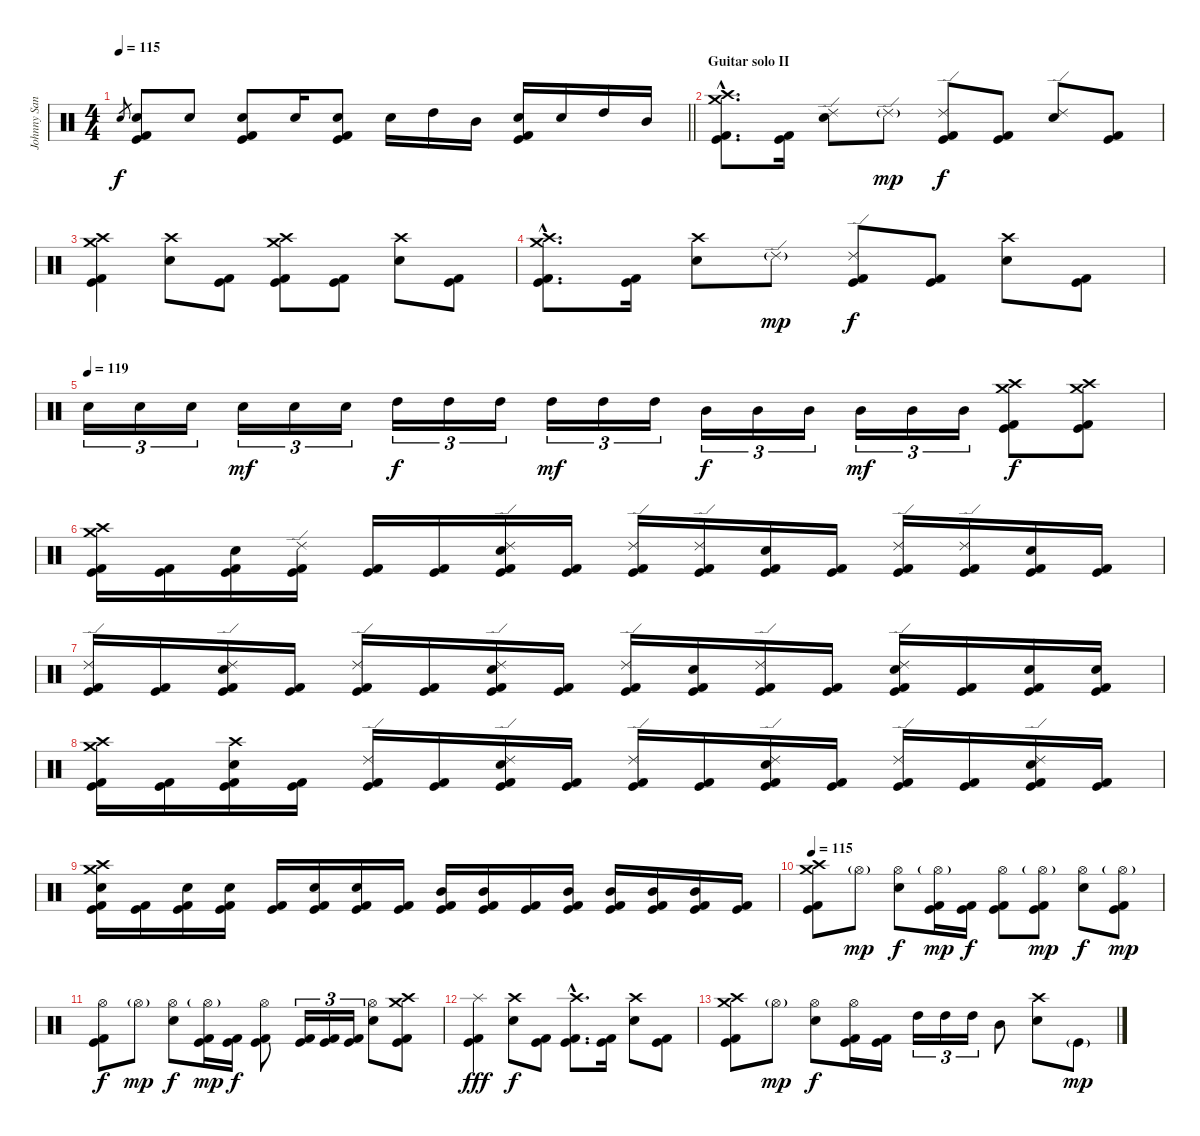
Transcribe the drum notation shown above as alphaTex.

\track ("Johnny Sandin" "Johnny San") {instrument percussion}
\staff {score}
\articulation defaults
\ts (4 4)
\tempo 115
\clef neutral
\barLineRight lightlight
\ks c "Snare (hit) 2".8{gr dy f}
("Snare (hit) 2" "Kick (hit) 2" "Kick (hit)").8 "Snare (hit) 2".8 ("Snare (hit) 2" "Kick (hit) 2" "Kick (hit)").8 "Snare (hit) 2".16 ("Snare (hit) 2" "Kick (hit) 2" "Kick (hit)").8 "Snare (hit) 2".16 "High Tom (hit)".16 "Mid Tom (hit)".16 ("Snare (hit) 2" "Kick (hit) 2" "Kick (hit)").16 "Snare (hit) 2".16 "High Tom (hit)".16 "Mid Tom (hit)".16 |
\section ("" "Guitar solo II")
("Crash medium (hit)"{hac} "Crash high (hit)"{hac} "Kick (hit) 2"{hac} "Kick (hit)"{hac}).8{d} ("Kick (hit) 2" "Kick (hit)").16 ("Ride (edge) 2" "Snare (hit) 2").8 "Ride (edge) 2"{g}.8{dy mp} ("Ride (edge) 2" "Kick (hit) 2" "Kick (hit)").8{dy f} ("Kick (hit) 2" "Kick (hit)").8 ("Ride (edge) 2" "Snare (hit) 2").8 ("Kick (hit) 2" "Kick (hit)").8 |
("Crash medium (hit)" "Crash high (hit)" "Kick (hit) 2" "Kick (hit)").4 ("Crash high (hit)" "Snare (hit) 2").8 ("Kick (hit) 2" "Kick (hit)").8 ("Crash medium (hit)" "Crash high (hit)" "Kick (hit) 2" "Kick (hit)").8 ("Kick (hit) 2" "Kick (hit)").8 ("Crash high (hit)" "Snare (hit) 2").8 ("Kick (hit) 2" "Kick (hit)").8 |
("Crash medium (hit)"{hac} "Crash high (hit)"{hac} "Kick (hit) 2"{hac} "Kick (hit)"{hac}).8{d} ("Kick (hit) 2" "Kick (hit)").16 ("Crash high (hit)" "Snare (hit) 2").8 "Ride (edge) 2"{g}.8{dy mp} ("Ride (edge) 2" "Kick (hit) 2" "Kick (hit)").8{dy f} ("Kick (hit) 2" "Kick (hit)").8 ("Crash high (hit)" "Snare (hit) 2").8 ("Kick (hit) 2" "Kick (hit)").8 |
\tempo (119)
"Snare (hit) 2".16{tu (3 2)} "Snare (hit) 2".16{tu (3 2)} "Snare (hit) 2".16{tu (3 2)} "Snare (hit) 2".16{tu (3 2) dy mf} "Snare (hit) 2".16{tu (3 2)} "Snare (hit) 2".16{tu (3 2)} "High Tom (hit)".16{tu (3 2) dy f} "High Tom (hit)".16{tu (3 2)} "High Tom (hit)".16{tu (3 2)} "High Tom (hit)".16{tu (3 2) dy mf} "High Tom (hit)".16{tu (3 2)} "High Tom (hit)".16{tu (3 2)} "Mid Tom (hit)".16{tu (3 2) dy f} "Mid Tom (hit)".16{tu (3 2)} "Mid Tom (hit)".16{tu (3 2)} "Mid Tom (hit)".16{tu (3 2) dy mf} "Mid Tom (hit)".16{tu (3 2)} "Mid Tom (hit)".16{tu (3 2)} ("Crash medium (hit)" "Crash high (hit)" "Kick (hit) 2" "Kick (hit)").8{dy f} ("Crash medium (hit)" "Crash high (hit)" "Kick (hit) 2" "Kick (hit)").8 |
("Crash medium (hit)" "Crash high (hit)" "Kick (hit) 2" "Kick (hit)").16 ("Kick (hit) 2" "Kick (hit)").16 ("Snare (hit) 2" "Kick (hit) 2" "Kick (hit)").16 ("Ride (edge) 2" "Kick (hit) 2" "Kick (hit)").16 ("Kick (hit) 2" "Kick (hit)").16 ("Kick (hit) 2" "Kick (hit)").16 ("Ride (edge) 2" "Snare (hit) 2" "Kick (hit) 2" "Kick (hit)").16 ("Kick (hit) 2" "Kick (hit)").16 ("Ride (edge) 2" "Kick (hit) 2" "Kick (hit)").16 ("Ride (edge) 2" "Kick (hit) 2" "Kick (hit)").16 ("Snare (hit) 2" "Kick (hit) 2" "Kick (hit)").16 ("Kick (hit) 2" "Kick (hit)").16 ("Ride (edge) 2" "Kick (hit) 2" "Kick (hit)").16 ("Ride (edge) 2" "Kick (hit) 2" "Kick (hit)").16 ("Snare (hit) 2" "Kick (hit) 2" "Kick (hit)").16 ("Kick (hit) 2" "Kick (hit)").16 |
("Ride (edge) 2" "Kick (hit) 2" "Kick (hit)").16 ("Kick (hit) 2" "Kick (hit)").16 ("Ride (edge) 2" "Snare (hit) 2" "Kick (hit) 2" "Kick (hit)").16 ("Kick (hit) 2" "Kick (hit)").16 ("Ride (edge) 2" "Kick (hit) 2" "Kick (hit)").16 ("Kick (hit) 2" "Kick (hit)").16 ("Ride (edge) 2" "Snare (hit) 2" "Kick (hit) 2" "Kick (hit)").16 ("Kick (hit) 2" "Kick (hit)").16 ("Ride (edge) 2" "Kick (hit) 2" "Kick (hit)").16 ("Snare (hit) 2" "Kick (hit) 2" "Kick (hit)").16 ("Ride (edge) 2" "Kick (hit) 2" "Kick (hit)").16 ("Kick (hit) 2" "Kick (hit)").16 ("Ride (edge) 2" "Snare (hit) 2" "Kick (hit) 2" "Kick (hit)").16 ("Kick (hit) 2" "Kick (hit)").16 ("Snare (hit) 2" "Kick (hit) 2" "Kick (hit)").16 ("Snare (hit) 2" "Kick (hit) 2" "Kick (hit)").16 |
("Crash medium (hit)" "Crash high (hit)" "Kick (hit) 2" "Kick (hit)").16 ("Kick (hit) 2" "Kick (hit)").16 ("Crash high (hit)" "Snare (hit) 2" "Kick (hit) 2" "Kick (hit)").16 ("Kick (hit) 2" "Kick (hit)").16 ("Ride (edge) 2" "Kick (hit) 2" "Kick (hit)").16 ("Kick (hit) 2" "Kick (hit)").16 ("Ride (edge) 2" "Snare (hit) 2" "Kick (hit) 2" "Kick (hit)").16 ("Kick (hit) 2" "Kick (hit)").16 ("Ride (edge) 2" "Kick (hit) 2" "Kick (hit)").16 ("Kick (hit) 2" "Kick (hit)").16 ("Ride (edge) 2" "Snare (hit) 2" "Kick (hit) 2" "Kick (hit)").16 ("Kick (hit) 2" "Kick (hit)").16 ("Ride (edge) 2" "Kick (hit) 2" "Kick (hit)").16 ("Kick (hit) 2" "Kick (hit)").16 ("Ride (edge) 2" "Snare (hit) 2" "Kick (hit) 2" "Kick (hit)").16 ("Kick (hit) 2" "Kick (hit)").16 |
("Crash medium (hit)" "Crash high (hit)" "Snare (hit) 2" "Kick (hit) 2" "Kick (hit)").16 ("Kick (hit) 2" "Kick (hit)").16 ("Snare (hit) 2" "Kick (hit) 2" "Kick (hit)").16 ("Snare (hit) 2" "Kick (hit) 2" "Kick (hit)").16 ("Kick (hit) 2" "Kick (hit)").16 ("Snare (hit) 2" "Kick (hit) 2" "Kick (hit)").16 ("Snare (hit) 2" "Kick (hit) 2" "Kick (hit)").16 ("Kick (hit) 2" "Kick (hit)").16 ("Mid Tom (hit)" "Kick (hit) 2" "Kick (hit)").16 ("Mid Tom (hit)" "Kick (hit) 2" "Kick (hit)").16 ("Kick (hit) 2" "Kick (hit)").16 ("Mid Tom (hit)" "Kick (hit) 2" "Kick (hit)").16 ("Mid Tom (hit)" "Kick (hit) 2" "Kick (hit)").16 ("Mid Tom (hit)" "Kick (hit) 2" "Kick (hit)").16 ("Mid Tom (hit)" "Kick (hit) 2" "Kick (hit)").16 ("Kick (hit) 2" "Kick (hit)").16 |
\tempo 115
("Crash medium (hit)" "Crash high (hit)" "Kick (hit) 2" "Kick (hit)").8 "Hi-Hat (open)"{g}.8{dy mp} ("Hi-Hat (open)" "Snare (hit) 2").8{dy f} ("Hi-Hat (open)"{g} "Kick (hit) 2" "Kick (hit)").16{dy mp} ("Kick (hit) 2" "Kick (hit)").16{dy f} ("Hi-Hat (open)" "Kick (hit) 2" "Kick (hit)").8 ("Hi-Hat (open)"{g} "Kick (hit) 2" "Kick (hit)").8{dy mp} ("Hi-Hat (open)" "Snare (hit) 2").8{dy f} ("Hi-Hat (open)"{g} "Kick (hit) 2" "Kick (hit)").8{dy mp} |
("Hi-Hat (open)" "Kick (hit) 2" "Kick (hit)").8{dy f} "Hi-Hat (open)"{g}.8{dy mp} ("Hi-Hat (open)" "Snare (hit) 2").8{dy f} ("Hi-Hat (open)"{g} "Kick (hit) 2" "Kick (hit)").16{dy mp} ("Kick (hit) 2" "Kick (hit)").16{dy f} ("Hi-Hat (open)" "Kick (hit) 2" "Kick (hit)").8 ("Kick (hit) 2" "Kick (hit)").16{tu (3 2)} ("Kick (hit) 2" "Kick (hit)").16{tu (3 2)} ("Kick (hit) 2" "Kick (hit)").16{tu (3 2)} ("Hi-Hat (open)" "Snare (hit) 2").8 ("Crash medium (hit)" "Crash high (hit)" "Kick (hit) 2" "Kick (hit)").8 |
("Splash (hit)" "Kick (hit) 2" "Kick (hit)").4{dy fff} ("Crash high (hit)" "Snare (hit) 2").8{dy f} ("Kick (hit) 2" "Kick (hit)").8 ("Crash high (hit)"{hac} "Kick (hit) 2"{hac} "Kick (hit)"{hac}).8{d} ("Kick (hit) 2" "Kick (hit)").16 ("Crash high (hit)" "Snare (hit) 2").8 ("Kick (hit) 2" "Kick (hit)").8 |
("Crash medium (hit)" "Crash high (hit)" "Kick (hit) 2" "Kick (hit)").8 "Hi-Hat (open)"{g}.8{dy mp} ("Hi-Hat (open)" "Snare (hit) 2").8{dy f} ("Hi-Hat (open)" "Kick (hit) 2" "Kick (hit)").16 ("Kick (hit) 2" "Kick (hit)").16 "High Tom (hit)".16{tu (3 2)} "High Tom (hit)".16{tu (3 2)} "High Tom (hit)".16{tu (3 2)} "Mid Tom (hit)".8 ("Crash high (hit)" "Snare (hit) 2").8 "Kick (hit)"{g}.8{dy mp}
